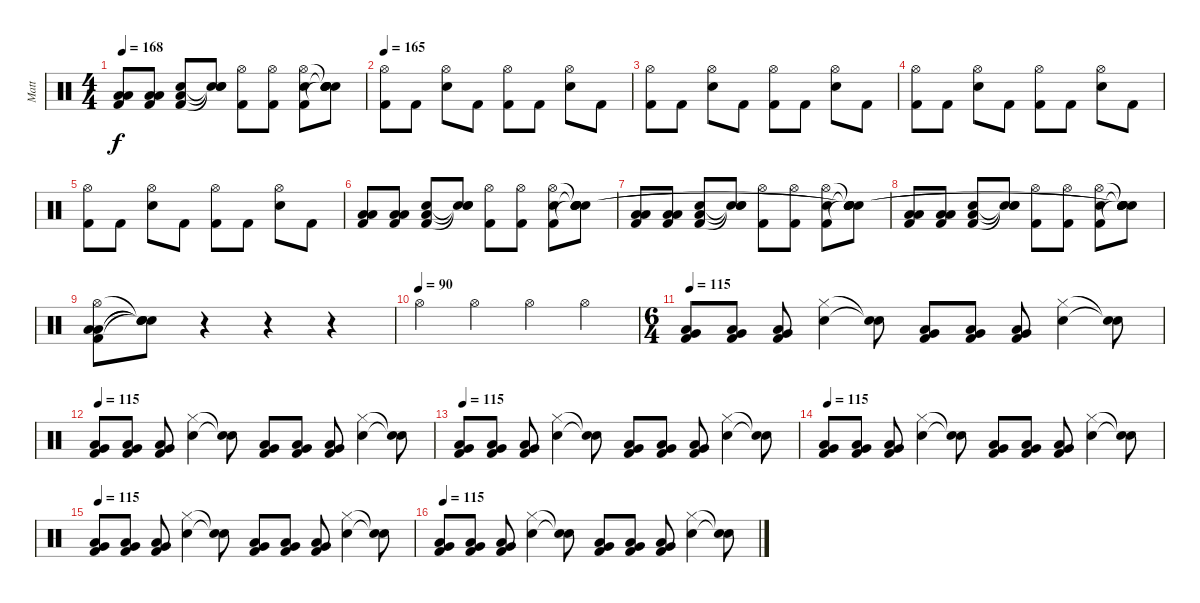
\track ("Matt" "Matt") {instrument percussion}
\staff {score}
\articulation defaults
\ts (4 4)
\tempo 168
\clef neutral
\ks c
("Low Tom (hit)" "Kick (hit) 2" "Low Floor Tom (hit)").8{dy f} ("Low Tom (hit)" "Kick (hit) 2" "Low Floor Tom (hit)").8 ("Electric Snare (hit)" "Kick (hit) 2" "Low Floor Tom (hit)").8 ("Snare (hit)"{t} "Snare (hit)"{t} "Snare (hit)"{t}).8 ("Hi-Hat (open)" "Kick (hit) 2").8 ("Hi-Hat (open)" "Kick (hit) 2").8 ("Hi-Hat (open)" "Electric Snare (hit)" "Kick (hit) 2").8 ("Snare (hit)"{t} "Snare (hit)"{t} "Snare (hit)"{t} "Snare (hit)"{t} "Snare (hit)"{t}).8 |
\tempo 165
("Hi-Hat (open)" "Kick (hit) 2").8 "Kick (hit) 2".8 ("Hi-Hat (open)" "Electric Snare (hit)").8 "Kick (hit) 2".8 ("Hi-Hat (open)" "Kick (hit) 2").8 "Kick (hit) 2".8 ("Hi-Hat (open)" "Electric Snare (hit)").8 "Kick (hit) 2".8 |
("Hi-Hat (open)" "Kick (hit) 2").8 "Kick (hit) 2".8 ("Hi-Hat (open)" "Electric Snare (hit)").8 "Kick (hit) 2".8 ("Hi-Hat (open)" "Kick (hit) 2").8 "Kick (hit) 2".8 ("Hi-Hat (open)" "Electric Snare (hit)").8 "Kick (hit) 2".8 |
("Hi-Hat (open)" "Kick (hit) 2").8 "Kick (hit) 2".8 ("Hi-Hat (open)" "Electric Snare (hit)").8 "Kick (hit) 2".8 ("Hi-Hat (open)" "Kick (hit) 2").8 "Kick (hit) 2".8 ("Hi-Hat (open)" "Electric Snare (hit)").8 "Kick (hit) 2".8 |
("Hi-Hat (open)" "Kick (hit) 2").8 "Kick (hit) 2".8 ("Hi-Hat (open)" "Electric Snare (hit)").8 "Kick (hit) 2".8 ("Hi-Hat (open)" "Kick (hit) 2").8 "Kick (hit) 2".8 ("Hi-Hat (open)" "Electric Snare (hit)").8 "Kick (hit) 2".8 |
("Low Tom (hit)" "Kick (hit) 2" "Low Floor Tom (hit)").8 ("Low Tom (hit)" "Kick (hit) 2" "Low Floor Tom (hit)").8 ("Electric Snare (hit)" "Kick (hit) 2" "Low Floor Tom (hit)").8 ("Snare (hit)"{t} "Snare (hit)"{t} "Snare (hit)"{t}).8 ("Hi-Hat (open)" "Kick (hit) 2").8 ("Hi-Hat (open)" "Kick (hit) 2").8 ("Hi-Hat (open)" "Electric Snare (hit)" "Kick (hit) 2").8 ("Snare (hit)"{t} "Snare (hit)"{t} "Snare (hit)"{t} "Snare (hit)" "Snare (hit)").8 |
("Low Tom (hit)" "Kick (hit) 2" "Low Floor Tom (hit)").8 ("Low Tom (hit)" "Kick (hit) 2" "Low Floor Tom (hit)").8 ("Electric Snare (hit)" "Kick (hit) 2" "Low Floor Tom (hit)").8 ("Snare (hit)"{t} "Snare (hit)"{t} "Snare (hit)"{t}).8 ("Hi-Hat (open)" "Kick (hit) 2").8 ("Hi-Hat (open)" "Kick (hit) 2").8 ("Hi-Hat (open)" "Electric Snare (hit)" "Kick (hit) 2").8 ("Snare (hit)"{t} "Snare (hit)"{t} "Snare (hit)"{t} "Snare (hit)"{t} "Snare (hit)"{t}).8 |
("Low Tom (hit)" "Kick (hit) 2" "Low Floor Tom (hit)").8 ("Low Tom (hit)" "Kick (hit) 2" "Low Floor Tom (hit)").8 ("Electric Snare (hit)" "Kick (hit) 2" "Low Floor Tom (hit)").8 ("Snare (hit)"{t} "Snare (hit)"{t} "Snare (hit)"{t}).8 ("Hi-Hat (open)" "Kick (hit) 2").8 ("Hi-Hat (open)" "Kick (hit) 2").8 ("Hi-Hat (open)" "Electric Snare (hit)" "Kick (hit) 2").8 ("Snare (hit)"{t} "Snare (hit)"{t} "Snare (hit)"{t} "Snare (hit)"{t} "Snare (hit)"{t}).8 |
("Hi-Hat (open)" "Low Tom (hit)" "Kick (hit) 2" "Low Floor Tom (hit)").8 ("Snare (hit)"{t} "Snare (hit)"{t} "Snare (hit)"{t} "Snare (hit)"{t}).8 r.4 r.4 r.4 |
\tempo (90)
"Hi-Hat (open)".4 "Hi-Hat (open)".4 "Hi-Hat (open)".4 "Hi-Hat (open)".4 |
\ts (6 4)
\tempo 115
("Low Floor Tom (hit)" "Very Low Tom (hit)" "Kick (hit) 2").8 ("Low Floor Tom (hit)" "Very Low Tom (hit)" "Kick (hit) 2").8 ("Low Floor Tom (hit)" "Very Low Tom (hit)" "Kick (hit) 2").8 ("Hi-Hat (closed)" "Electric Snare (hit)").4 ("Snare (hit)"{t} "Snare (hit)"{t}).8 ("Low Floor Tom (hit)" "Very Low Tom (hit)" "Kick (hit) 2").8 ("Low Floor Tom (hit)" "Very Low Tom (hit)" "Kick (hit) 2").8 ("Low Floor Tom (hit)" "Very Low Tom (hit)" "Kick (hit) 2").8 ("Hi-Hat (closed)" "Electric Snare (hit)").4 ("Snare (hit)"{t} "Snare (hit)"{t}).8 |
\tempo 115
("Low Floor Tom (hit)" "Very Low Tom (hit)" "Kick (hit) 2").8 ("Low Floor Tom (hit)" "Very Low Tom (hit)" "Kick (hit) 2").8 ("Low Floor Tom (hit)" "Very Low Tom (hit)" "Kick (hit) 2").8 ("Hi-Hat (closed)" "Electric Snare (hit)").4 ("Snare (hit)"{t} "Snare (hit)"{t}).8 ("Low Floor Tom (hit)" "Very Low Tom (hit)" "Kick (hit) 2").8 ("Low Floor Tom (hit)" "Very Low Tom (hit)" "Kick (hit) 2").8 ("Low Floor Tom (hit)" "Very Low Tom (hit)" "Kick (hit) 2").8 ("Hi-Hat (closed)" "Electric Snare (hit)").4 ("Snare (hit)"{t} "Snare (hit)"{t}).8 |
\tempo 115
("Low Floor Tom (hit)" "Very Low Tom (hit)" "Kick (hit) 2").8 ("Low Floor Tom (hit)" "Very Low Tom (hit)" "Kick (hit) 2").8 ("Low Floor Tom (hit)" "Very Low Tom (hit)" "Kick (hit) 2").8 ("Hi-Hat (closed)" "Electric Snare (hit)").4 ("Snare (hit)"{t} "Snare (hit)"{t}).8 ("Low Floor Tom (hit)" "Very Low Tom (hit)" "Kick (hit) 2").8 ("Low Floor Tom (hit)" "Very Low Tom (hit)" "Kick (hit) 2").8 ("Low Floor Tom (hit)" "Very Low Tom (hit)" "Kick (hit) 2").8 ("Hi-Hat (closed)" "Electric Snare (hit)").4 ("Snare (hit)"{t} "Snare (hit)"{t}).8 |
\tempo 115
("Low Floor Tom (hit)" "Very Low Tom (hit)" "Kick (hit) 2").8 ("Low Floor Tom (hit)" "Very Low Tom (hit)" "Kick (hit) 2").8 ("Low Floor Tom (hit)" "Very Low Tom (hit)" "Kick (hit) 2").8 ("Hi-Hat (closed)" "Electric Snare (hit)").4 ("Snare (hit)"{t} "Snare (hit)"{t}).8 ("Low Floor Tom (hit)" "Very Low Tom (hit)" "Kick (hit) 2").8 ("Low Floor Tom (hit)" "Very Low Tom (hit)" "Kick (hit) 2").8 ("Low Floor Tom (hit)" "Very Low Tom (hit)" "Kick (hit) 2").8 ("Hi-Hat (closed)" "Electric Snare (hit)").4 ("Snare (hit)"{t} "Snare (hit)"{t}).8 |
\tempo 115
("Low Floor Tom (hit)" "Very Low Tom (hit)" "Kick (hit) 2").8 ("Low Floor Tom (hit)" "Very Low Tom (hit)" "Kick (hit) 2").8 ("Low Floor Tom (hit)" "Very Low Tom (hit)" "Kick (hit) 2").8 ("Hi-Hat (closed)" "Electric Snare (hit)").4 ("Snare (hit)"{t} "Snare (hit)"{t}).8 ("Low Floor Tom (hit)" "Very Low Tom (hit)" "Kick (hit) 2").8 ("Low Floor Tom (hit)" "Very Low Tom (hit)" "Kick (hit) 2").8 ("Low Floor Tom (hit)" "Very Low Tom (hit)" "Kick (hit) 2").8 ("Hi-Hat (closed)" "Electric Snare (hit)").4 ("Snare (hit)"{t} "Snare (hit)"{t}).8 |
\tempo 115
("Low Floor Tom (hit)" "Very Low Tom (hit)" "Kick (hit) 2").8 ("Low Floor Tom (hit)" "Very Low Tom (hit)" "Kick (hit) 2").8 ("Low Floor Tom (hit)" "Very Low Tom (hit)" "Kick (hit) 2").8 ("Hi-Hat (closed)" "Electric Snare (hit)").4 ("Snare (hit)"{t} "Snare (hit)"{t}).8 ("Low Floor Tom (hit)" "Very Low Tom (hit)" "Kick (hit) 2").8 ("Low Floor Tom (hit)" "Very Low Tom (hit)" "Kick (hit) 2").8 ("Low Floor Tom (hit)" "Very Low Tom (hit)" "Kick (hit) 2").8 ("Hi-Hat (closed)" "Electric Snare (hit)").4 ("Snare (hit)"{t} "Snare (hit)"{t}).8
